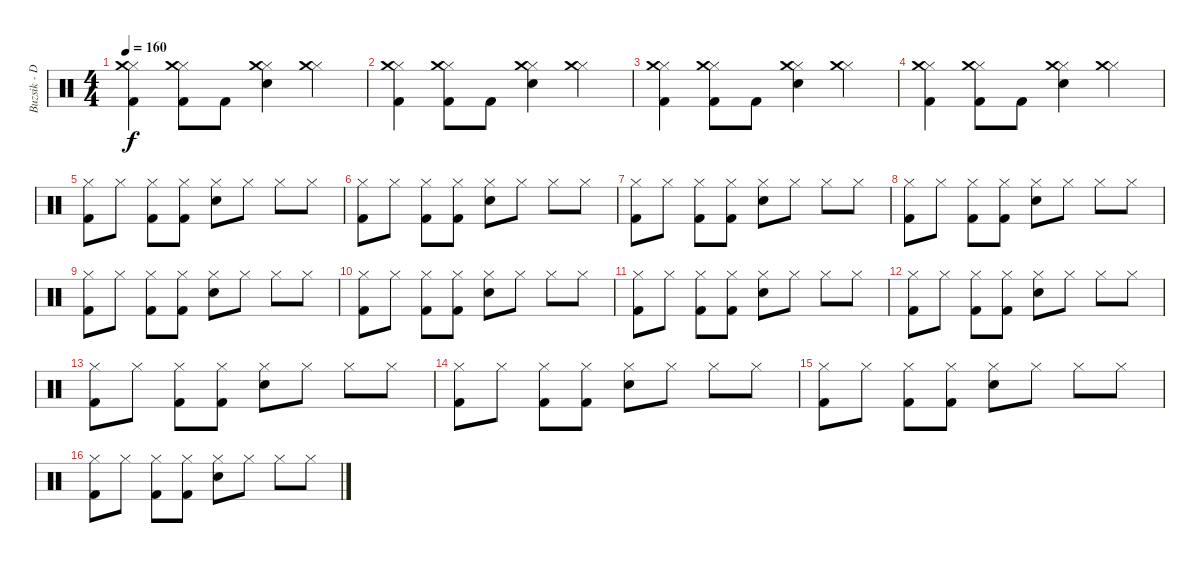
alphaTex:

\track ("Buzsik - Dob" "Buzsik - D") {instrument percussion}
\staff {score}
\articulation defaults
\ts (4 4)
\tempo 160
\clef neutral
\ks c
("Hi-Hat (closed)" "Crash medium (hit)" "Kick (hit) 2").4{dy f} ("Hi-Hat (closed)" "Crash medium (hit)" "Kick (hit) 2").8 "Kick (hit) 2".8 ("Hi-Hat (closed)" "Crash medium (hit)" "Electric Snare (hit)").4 ("Hi-Hat (closed)" "Crash medium (hit)").4 |
("Hi-Hat (closed)" "Crash medium (hit)" "Kick (hit) 2").4 ("Hi-Hat (closed)" "Crash medium (hit)" "Kick (hit) 2").8 "Kick (hit) 2".8 ("Hi-Hat (closed)" "Crash medium (hit)" "Electric Snare (hit)").4 ("Hi-Hat (closed)" "Crash medium (hit)").4 |
("Hi-Hat (closed)" "Crash medium (hit)" "Kick (hit) 2").4 ("Hi-Hat (closed)" "Crash medium (hit)" "Kick (hit) 2").8 "Kick (hit) 2".8 ("Hi-Hat (closed)" "Crash medium (hit)" "Electric Snare (hit)").4 ("Hi-Hat (closed)" "Crash medium (hit)").4 |
("Hi-Hat (closed)" "Crash medium (hit)" "Kick (hit) 2").4 ("Hi-Hat (closed)" "Crash medium (hit)" "Kick (hit) 2").8 "Kick (hit) 2".8 ("Hi-Hat (closed)" "Crash medium (hit)" "Electric Snare (hit)").4 ("Hi-Hat (closed)" "Crash medium (hit)").4 |
("Hi-Hat (closed)" "Kick (hit) 2").8 "Hi-Hat (closed)".8 ("Hi-Hat (closed)" "Kick (hit) 2").8 ("Hi-Hat (closed)" "Kick (hit) 2").8 ("Hi-Hat (closed)" "Electric Snare (hit)").8 "Hi-Hat (closed)".8 "Hi-Hat (closed)".8 "Hi-Hat (closed)".8 |
("Hi-Hat (closed)" "Kick (hit) 2").8 "Hi-Hat (closed)".8 ("Hi-Hat (closed)" "Kick (hit) 2").8 ("Hi-Hat (closed)" "Kick (hit) 2").8 ("Hi-Hat (closed)" "Electric Snare (hit)").8 "Hi-Hat (closed)".8 "Hi-Hat (closed)".8 "Hi-Hat (closed)".8 |
("Hi-Hat (closed)" "Kick (hit) 2").8 "Hi-Hat (closed)".8 ("Hi-Hat (closed)" "Kick (hit) 2").8 ("Hi-Hat (closed)" "Kick (hit) 2").8 ("Hi-Hat (closed)" "Electric Snare (hit)").8 "Hi-Hat (closed)".8 "Hi-Hat (closed)".8 "Hi-Hat (closed)".8 |
("Hi-Hat (closed)" "Kick (hit) 2").8 "Hi-Hat (closed)".8 ("Hi-Hat (closed)" "Kick (hit) 2").8 ("Hi-Hat (closed)" "Kick (hit) 2").8 ("Hi-Hat (closed)" "Electric Snare (hit)").8 "Hi-Hat (closed)".8 "Hi-Hat (closed)".8 "Hi-Hat (closed)".8 |
("Hi-Hat (closed)" "Kick (hit) 2").8 "Hi-Hat (closed)".8 ("Hi-Hat (closed)" "Kick (hit) 2").8 ("Hi-Hat (closed)" "Kick (hit) 2").8 ("Hi-Hat (closed)" "Electric Snare (hit)").8 "Hi-Hat (closed)".8 "Hi-Hat (closed)".8 "Hi-Hat (closed)".8 |
("Hi-Hat (closed)" "Kick (hit) 2").8 "Hi-Hat (closed)".8 ("Hi-Hat (closed)" "Kick (hit) 2").8 ("Hi-Hat (closed)" "Kick (hit) 2").8 ("Hi-Hat (closed)" "Electric Snare (hit)").8 "Hi-Hat (closed)".8 "Hi-Hat (closed)".8 "Hi-Hat (closed)".8 |
("Hi-Hat (closed)" "Kick (hit) 2").8 "Hi-Hat (closed)".8 ("Hi-Hat (closed)" "Kick (hit) 2").8 ("Hi-Hat (closed)" "Kick (hit) 2").8 ("Hi-Hat (closed)" "Electric Snare (hit)").8 "Hi-Hat (closed)".8 "Hi-Hat (closed)".8 "Hi-Hat (closed)".8 |
("Hi-Hat (closed)" "Kick (hit) 2").8 "Hi-Hat (closed)".8 ("Hi-Hat (closed)" "Kick (hit) 2").8 ("Hi-Hat (closed)" "Kick (hit) 2").8 ("Hi-Hat (closed)" "Electric Snare (hit)").8 "Hi-Hat (closed)".8 "Hi-Hat (closed)".8 "Hi-Hat (closed)".8 |
("Hi-Hat (closed)" "Kick (hit) 2").8 "Hi-Hat (closed)".8 ("Hi-Hat (closed)" "Kick (hit) 2").8 ("Hi-Hat (closed)" "Kick (hit) 2").8 ("Hi-Hat (closed)" "Electric Snare (hit)").8 "Hi-Hat (closed)".8 "Hi-Hat (closed)".8 "Hi-Hat (closed)".8 |
("Hi-Hat (closed)" "Kick (hit) 2").8 "Hi-Hat (closed)".8 ("Hi-Hat (closed)" "Kick (hit) 2").8 ("Hi-Hat (closed)" "Kick (hit) 2").8 ("Hi-Hat (closed)" "Electric Snare (hit)").8 "Hi-Hat (closed)".8 "Hi-Hat (closed)".8 "Hi-Hat (closed)".8 |
("Hi-Hat (closed)" "Kick (hit) 2").8 "Hi-Hat (closed)".8 ("Hi-Hat (closed)" "Kick (hit) 2").8 ("Hi-Hat (closed)" "Kick (hit) 2").8 ("Hi-Hat (closed)" "Electric Snare (hit)").8 "Hi-Hat (closed)".8 "Hi-Hat (closed)".8 "Hi-Hat (closed)".8 |
("Hi-Hat (closed)" "Kick (hit) 2").8 "Hi-Hat (closed)".8 ("Hi-Hat (closed)" "Kick (hit) 2").8 ("Hi-Hat (closed)" "Kick (hit) 2").8 ("Hi-Hat (closed)" "Electric Snare (hit)").8 "Hi-Hat (closed)".8 "Hi-Hat (closed)".8 "Hi-Hat (closed)".8
